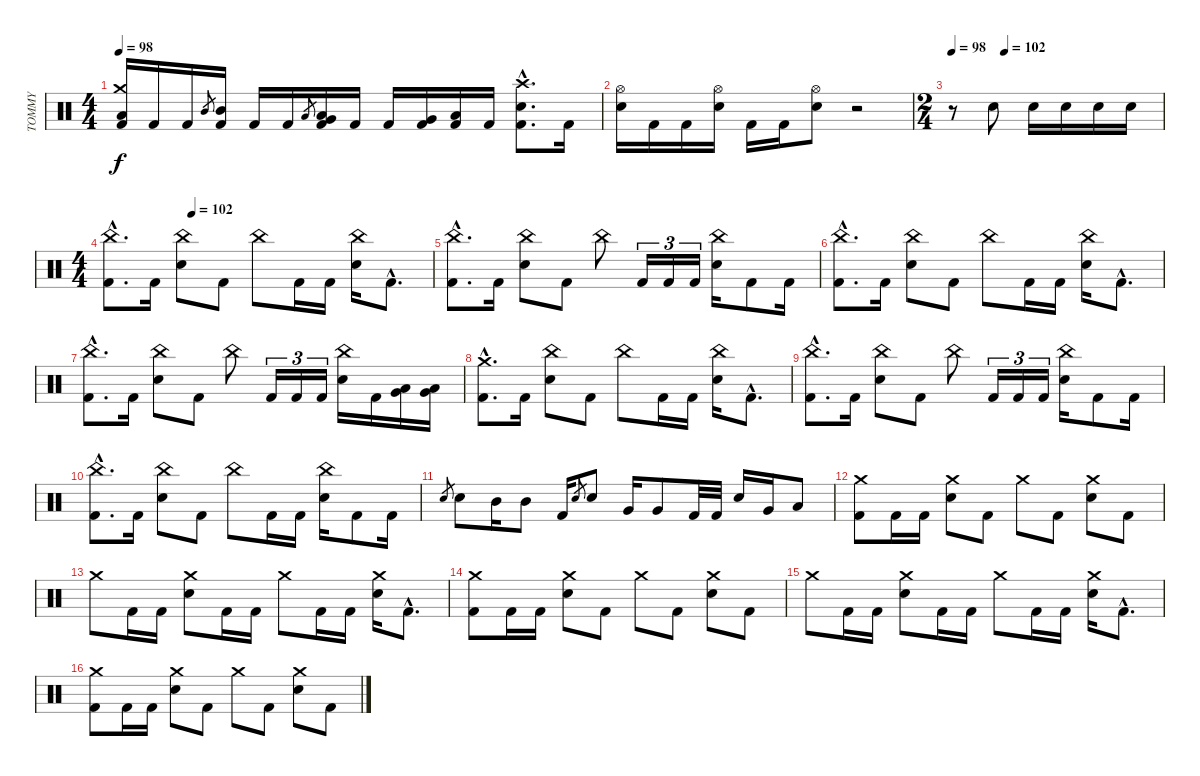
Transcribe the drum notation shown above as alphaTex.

\track ("TOMMY" "TOMMY") {instrument percussion}
\staff {score}
\articulation defaults
\ts (4 4)
\tempo 98
\clef neutral
\ks c
("Kick (hit) 2" "Crash medium (hit)" "Low Floor Tom (hit)").16{dy f} "Kick (hit) 2".16 "Kick (hit) 2".16 "Mid Tom (hit)".8{gr} ("Kick (hit) 2" "Mid Tom (hit)").16 "Kick (hit) 2".16 "Kick (hit) 2".16 "Low Floor Tom (hit)".8{gr} ("Kick (hit) 2" "Very Low Tom (hit)" "Low Floor Tom (hit)").16 "Kick (hit) 2".16 "Kick (hit) 2".16 ("Kick (hit) 2" "Very Low Tom (hit)").16 ("Kick (hit) 2" "Low Floor Tom (hit)").16 "Kick (hit) 2".16 ("Snare (hit) 2"{hac} "Kick (hit) 2"{hac} "Crash high (hit)"{hac}).8{d} "Kick (hit) 2".16 |
("Snare (hit) 2" "Hi-Hat (open)").16 "Kick (hit) 2".16 "Kick (hit) 2".16 ("Snare (hit) 2" "Hi-Hat (open)").16 "Kick (hit) 2".16 "Kick (hit) 2".16 ("Snare (hit) 2" "Hi-Hat (open)").8 r.2 |
\ts (2 4)
\tempo 98
\tempo (102 0.25)
r.8 "Snare (hit) 2".8 "Snare (hit) 2".16 "Snare (hit) 2".16 "Snare (hit) 2".16 "Snare (hit) 2".16 |
\ts (4 4)
\tempo (102 0.25)
("Kick (hit) 2"{hac} "China (hit)"{hac}).8{d} "Kick (hit) 2".16 ("Snare (hit) 2" "China (hit)").8 "Kick (hit) 2".8 "China (hit)".8 "Kick (hit) 2".16 "Kick (hit) 2".16 ("Snare (hit) 2" "China (hit)").16 "Kick (hit) 2"{hac}.8{d} |
("Kick (hit) 2"{hac} "China (hit)"{hac}).8{d} "Kick (hit) 2".16 ("Snare (hit) 2" "China (hit)").8 "Kick (hit) 2".8 "China (hit)".8 "Kick (hit) 2".16{tu (3 2)} "Kick (hit) 2".16{tu (3 2)} "Kick (hit) 2".16{tu (3 2)} ("Snare (hit) 2" "China (hit)").16 "Kick (hit) 2".8 "Kick (hit) 2".16 |
("Kick (hit) 2"{hac} "China (hit)"{hac}).8{d} "Kick (hit) 2".16 ("Snare (hit) 2" "China (hit)").8 "Kick (hit) 2".8 "China (hit)".8 "Kick (hit) 2".16 "Kick (hit) 2".16 ("Snare (hit) 2" "China (hit)").16 "Kick (hit) 2"{hac}.8{d} |
("Kick (hit) 2"{hac} "China (hit)"{hac}).8{d} "Kick (hit) 2".16 ("Snare (hit) 2" "China (hit)").8 "Kick (hit) 2".8 "China (hit)".8 "Kick (hit) 2".16{tu (3 2)} "Kick (hit) 2".16{tu (3 2)} "Kick (hit) 2".16{tu (3 2)} ("Snare (hit) 2" "China (hit)").16 "Kick (hit) 2".16 ("Very Low Tom (hit)" "Low Floor Tom (hit)").16 ("Very Low Tom (hit)" "Low Floor Tom (hit)").16 |
("Kick (hit) 2"{hac} "Crash medium (hit)"{hac}).8{d} "Kick (hit) 2".16 ("Snare (hit) 2" "China (hit)").8 "Kick (hit) 2".8 "China (hit)".8 "Kick (hit) 2".16 "Kick (hit) 2".16 ("Snare (hit) 2" "China (hit)").16 "Kick (hit) 2"{hac}.8{d} |
("Kick (hit) 2"{hac} "China (hit)"{hac}).8{d} "Kick (hit) 2".16 ("Snare (hit) 2" "China (hit)").8 "Kick (hit) 2".8 "China (hit)".8 "Kick (hit) 2".16{tu (3 2)} "Kick (hit) 2".16{tu (3 2)} "Kick (hit) 2".16{tu (3 2)} ("Snare (hit) 2" "China (hit)").16 "Kick (hit) 2".8 "Kick (hit) 2".16 |
("Kick (hit) 2"{hac} "China (hit)"{hac}).8{d} "Kick (hit) 2".16 ("Snare (hit) 2" "China (hit)").8 "Kick (hit) 2".8 "China (hit)".8 "Kick (hit) 2".16 "Kick (hit) 2".16 ("Snare (hit) 2" "China (hit)").16 "Kick (hit) 2".8 "Kick (hit) 2".16 |
"Snare (hit) 2".8{gr} "Snare (hit) 2".8 "Mid Tom (hit)".16 "Mid Tom (hit)".8 "Kick (hit) 2".16 "Snare (hit) 2".8{gr} "Snare (hit) 2".8 "Very Low Tom (hit)".16 "Very Low Tom (hit)".8 "Kick (hit) 2".32 "Kick (hit) 2".32 "Snare (hit) 2".16 "Very Low Tom (hit)".16 "Low Floor Tom (hit)".8 |
("Kick (hit) 2" "Crash medium (hit)").8 "Kick (hit) 2".16 "Kick (hit) 2".16 ("Snare (hit) 2" "Crash medium (hit)").8 "Kick (hit) 2".8 "Crash medium (hit)".8 "Kick (hit) 2".8 ("Snare (hit) 2" "Crash medium (hit)").8 "Kick (hit) 2".8 |
"Crash medium (hit)".8 "Kick (hit) 2".16 "Kick (hit) 2".16 ("Snare (hit) 2" "Crash medium (hit)").8 "Kick (hit) 2".16 "Kick (hit) 2".16 "Crash medium (hit)".8 "Kick (hit) 2".16 "Kick (hit) 2".16 ("Snare (hit) 2" "Crash medium (hit)").16 "Kick (hit) 2"{hac}.8{d} |
("Kick (hit) 2" "Crash medium (hit)").8 "Kick (hit) 2".16 "Kick (hit) 2".16 ("Snare (hit) 2" "Crash medium (hit)").8 "Kick (hit) 2".8 "Crash medium (hit)".8 "Kick (hit) 2".8 ("Snare (hit) 2" "Crash medium (hit)").8 "Kick (hit) 2".8 |
"Crash medium (hit)".8 "Kick (hit) 2".16 "Kick (hit) 2".16 ("Snare (hit) 2" "Crash medium (hit)").8 "Kick (hit) 2".16 "Kick (hit) 2".16 "Crash medium (hit)".8 "Kick (hit) 2".16 "Kick (hit) 2".16 ("Snare (hit) 2" "Crash medium (hit)").16 "Kick (hit) 2"{hac}.8{d} |
("Kick (hit) 2" "Crash medium (hit)").8 "Kick (hit) 2".16 "Kick (hit) 2".16 ("Snare (hit) 2" "Crash medium (hit)").8 "Kick (hit) 2".8 "Crash medium (hit)".8 "Kick (hit) 2".8 ("Snare (hit) 2" "Crash medium (hit)").8 "Kick (hit) 2".8
